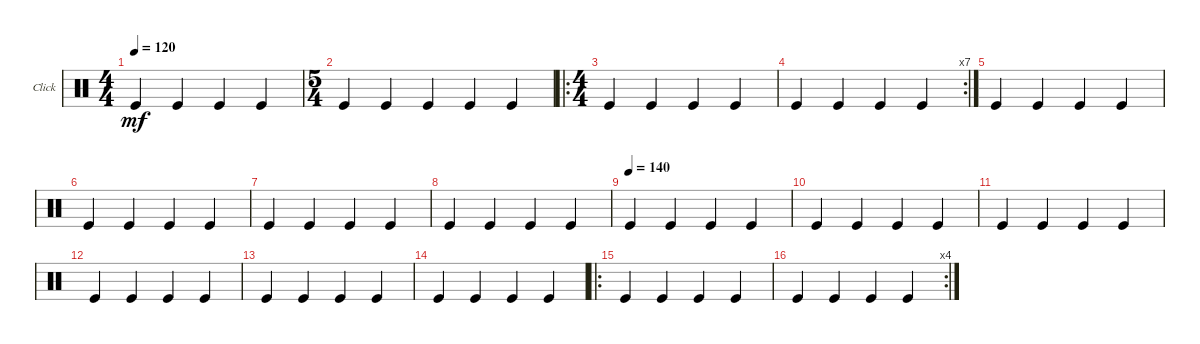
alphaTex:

\bracketExtendMode groupsimilarinstruments
\firstSystemTrackNameOrientation horizontal
\otherSystemsTrackNameOrientation horizontal
\track ("Click" "Click") {instrument percussion}
\staff {score}
\articulation defaults
\ts (4 4)
\tempo 120
\clef neutral
\ks c "Kick (hit)".4{dy mf} "Kick (hit)".4 "Kick (hit)".4 "Kick (hit)".4
|
\ts (5 4)
"Kick (hit)".4 "Kick (hit)".4 "Kick (hit)".4 "Kick (hit)".4 "Kick (hit)".4 |
\ro
\ts (4 4)
"Kick (hit)".4 "Kick (hit)".4 "Kick (hit)".4 "Kick (hit)".4 |
\rc 7 "Kick (hit)".4 "Kick (hit)".4 "Kick (hit)".4 "Kick (hit)".4
|
"Kick (hit)".4 "Kick (hit)".4 "Kick (hit)".4 "Kick (hit)".4 |
"Kick (hit)".4 "Kick (hit)".4 "Kick (hit)".4 "Kick (hit)".4 |
"Kick (hit)".4 "Kick (hit)".4 "Kick (hit)".4 "Kick (hit)".4 |
"Kick (hit)".4 "Kick (hit)".4 "Kick (hit)".4 "Kick (hit)".4 |
\tempo (140)
"Kick (hit)".4 "Kick (hit)".4 "Kick (hit)".4 "Kick (hit)".4 |
"Kick (hit)".4 "Kick (hit)".4 "Kick (hit)".4 "Kick (hit)".4 |
"Kick (hit)".4 "Kick (hit)".4 "Kick (hit)".4 "Kick (hit)".4 |
"Kick (hit)".4 "Kick (hit)".4 "Kick (hit)".4 "Kick (hit)".4 |
"Kick (hit)".4 "Kick (hit)".4 "Kick (hit)".4 "Kick (hit)".4 |
"Kick (hit)".4 "Kick (hit)".4 "Kick (hit)".4 "Kick (hit)".4 |
\ro "Kick (hit)".4 "Kick (hit)".4 "Kick (hit)".4 "Kick (hit)".4
|
\rc 4 "Kick (hit)".4 "Kick (hit)".4 "Kick (hit)".4 "Kick (hit)".4
